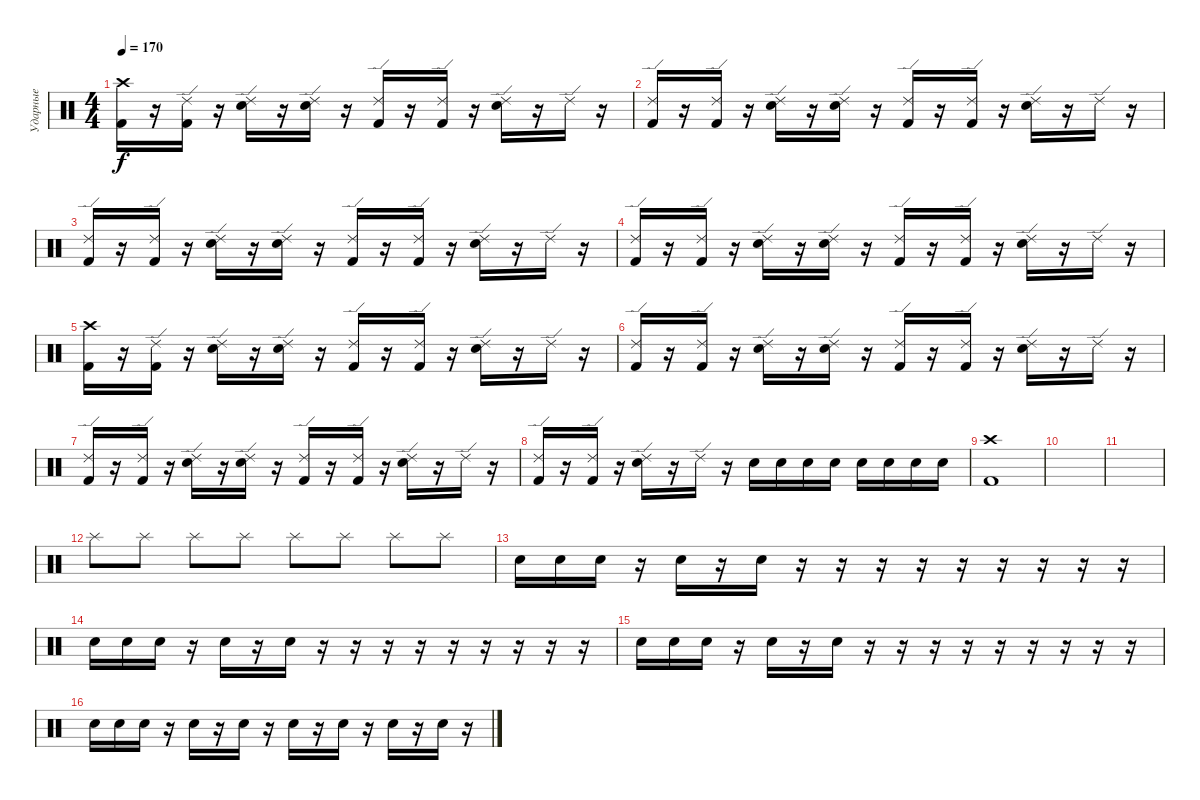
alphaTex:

\track ("Ударные" "Ударные") {instrument percussion}
\staff {score}
\articulation defaults
\ts (4 4)
\tempo 170
\clef neutral
\ks c
("Crash high (hit)" "Kick (hit) 2").16{dy f} r.16 ("Ride (edge) 2" "Kick (hit) 2").16 r.16 ("Ride (edge) 2" "Snare (hit) 2").16 r.16 ("Ride (edge) 2" "Snare (hit) 2").16 r.16 ("Ride (edge) 2" "Kick (hit) 2").16 r.16 ("Ride (edge) 2" "Kick (hit) 2").16 r.16 ("Ride (edge) 2" "Snare (hit) 2").16 r.16 "Ride (edge) 2".16 r.16 |
("Ride (edge) 2" "Kick (hit) 2").16 r.16 ("Ride (edge) 2" "Kick (hit) 2").16 r.16 ("Ride (edge) 2" "Snare (hit) 2").16 r.16 ("Ride (edge) 2" "Snare (hit) 2").16 r.16 ("Ride (edge) 2" "Kick (hit) 2").16 r.16 ("Ride (edge) 2" "Kick (hit) 2").16 r.16 ("Ride (edge) 2" "Snare (hit) 2").16 r.16 "Ride (edge) 2".16 r.16 |
("Ride (edge) 2" "Kick (hit) 2").16 r.16 ("Ride (edge) 2" "Kick (hit) 2").16 r.16 ("Ride (edge) 2" "Snare (hit) 2").16 r.16 ("Ride (edge) 2" "Snare (hit) 2").16 r.16 ("Ride (edge) 2" "Kick (hit) 2").16 r.16 ("Ride (edge) 2" "Kick (hit) 2").16 r.16 ("Ride (edge) 2" "Snare (hit) 2").16 r.16 "Ride (edge) 2".16 r.16 |
("Ride (edge) 2" "Kick (hit) 2").16 r.16 ("Ride (edge) 2" "Kick (hit) 2").16 r.16 ("Ride (edge) 2" "Snare (hit) 2").16 r.16 ("Ride (edge) 2" "Snare (hit) 2").16 r.16 ("Ride (edge) 2" "Kick (hit) 2").16 r.16 ("Ride (edge) 2" "Kick (hit) 2").16 r.16 ("Ride (edge) 2" "Snare (hit) 2").16 r.16 "Ride (edge) 2".16 r.16 |
("Crash high (hit)" "Kick (hit) 2").16 r.16 ("Ride (edge) 2" "Kick (hit) 2").16 r.16 ("Ride (edge) 2" "Snare (hit) 2").16 r.16 ("Ride (edge) 2" "Snare (hit) 2").16 r.16 ("Ride (edge) 2" "Kick (hit) 2").16 r.16 ("Ride (edge) 2" "Kick (hit) 2").16 r.16 ("Ride (edge) 2" "Snare (hit) 2").16 r.16 "Ride (edge) 2".16 r.16 |
("Ride (edge) 2" "Kick (hit) 2").16 r.16 ("Ride (edge) 2" "Kick (hit) 2").16 r.16 ("Ride (edge) 2" "Snare (hit) 2").16 r.16 ("Ride (edge) 2" "Snare (hit) 2").16 r.16 ("Ride (edge) 2" "Kick (hit) 2").16 r.16 ("Ride (edge) 2" "Kick (hit) 2").16 r.16 ("Ride (edge) 2" "Snare (hit) 2").16 r.16 "Ride (edge) 2".16 r.16 |
("Ride (edge) 2" "Kick (hit) 2").16 r.16 ("Ride (edge) 2" "Kick (hit) 2").16 r.16 ("Ride (edge) 2" "Snare (hit) 2").16 r.16 ("Ride (edge) 2" "Snare (hit) 2").16 r.16 ("Ride (edge) 2" "Kick (hit) 2").16 r.16 ("Ride (edge) 2" "Kick (hit) 2").16 r.16 ("Ride (edge) 2" "Snare (hit) 2").16 r.16 "Ride (edge) 2".16 r.16 |
("Ride (edge) 2" "Kick (hit) 2").16 r.16 ("Ride (edge) 2" "Kick (hit) 2").16 r.16 ("Ride (edge) 2" "Snare (hit) 2").16 r.16 "Ride (edge) 2".16 r.16 "Snare (hit) 2".16 "Snare (hit) 2".16 "Snare (hit) 2".16 "Snare (hit) 2".16 "Snare (hit) 2".16 "Snare (hit) 2".16 "Snare (hit) 2".16 "Snare (hit) 2".16 |
("Crash high (hit)" "Kick (hit) 2").1 |
|
|
"Splash (hit)".8 "Splash (hit)".8 "Splash (hit)".8 "Splash (hit)".8 "Splash (hit)".8 "Splash (hit)".8 "Splash (hit)".8 "Splash (hit)".8 |
"Snare (hit) 2".16 "Snare (hit) 2".16 "Snare (hit) 2".16 r.16 "Snare (hit) 2".16 r.16 "Snare (hit) 2".16 r.16 r.16 r.16 r.16 r.16 r.16 r.16 r.16 r.16 |
"Snare (hit) 2".16 "Snare (hit) 2".16 "Snare (hit) 2".16 r.16 "Snare (hit) 2".16 r.16 "Snare (hit) 2".16 r.16 r.16 r.16 r.16 r.16 r.16 r.16 r.16 r.16 |
"Snare (hit) 2".16 "Snare (hit) 2".16 "Snare (hit) 2".16 r.16 "Snare (hit) 2".16 r.16 "Snare (hit) 2".16 r.16 r.16 r.16 r.16 r.16 r.16 r.16 r.16 r.16 |
"Snare (hit) 2".16 "Snare (hit) 2".16 "Snare (hit) 2".16 r.16 "Snare (hit) 2".16 r.16 "Snare (hit) 2".16 r.16 "Snare (hit) 2".16 r.16 "Snare (hit) 2".16 r.16 "Snare (hit) 2".16 r.16 "Snare (hit) 2".16 r.16
